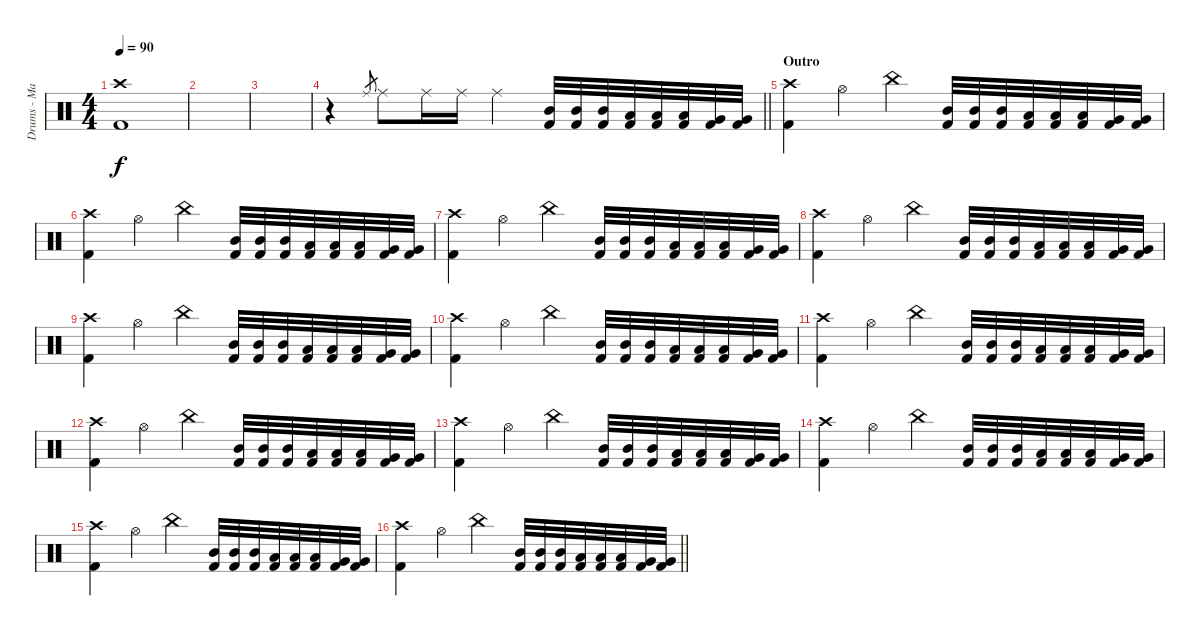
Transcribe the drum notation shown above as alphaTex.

\track ("Drums - Mario Duplantier" "Drums - Ma") {instrument percussion}
\staff {score}
\articulation defaults
\ts (4 4)
\tempo 90
\clef neutral
\ks c
("Crash high (hit)" "Kick (hit) 2").1{dy f} |
|
|
\barLineRight lightlight
r.4 "Ride (middle)".8{gr} "Ride (middle)".8 "Ride (middle)".16 "Ride (middle)".16 "Ride (middle)".4 ("Mid Tom (hit)" "Kick (hit) 2").32 ("Mid Tom (hit)" "Kick (hit) 2").32 ("Mid Tom (hit)" "Kick (hit) 2").32 ("Low Tom (hit)" "Kick (hit) 2").32 ("Low Tom (hit)" "Kick (hit) 2").32 ("Low Tom (hit)" "Kick (hit) 2").32 ("Very Low Tom (hit)" "Kick (hit) 2").32 ("Very Low Tom (hit)" "Kick (hit) 2").32 |
\section ("" "Outro")
("Crash high (hit)" "Kick (hit) 2").4 "Hi-Hat (open)".4 "China (hit)".4 ("Mid Tom (hit)" "Kick (hit) 2").32 ("Mid Tom (hit)" "Kick (hit) 2").32 ("Mid Tom (hit)" "Kick (hit) 2").32 ("Low Tom (hit)" "Kick (hit) 2").32 ("Low Tom (hit)" "Kick (hit) 2").32 ("Low Tom (hit)" "Kick (hit) 2").32 ("Very Low Tom (hit)" "Kick (hit) 2").32 ("Very Low Tom (hit)" "Kick (hit) 2").32 |
("Crash high (hit)" "Kick (hit) 2").4 "Hi-Hat (open)".4 "China (hit)".4 ("Mid Tom (hit)" "Kick (hit) 2").32 ("Mid Tom (hit)" "Kick (hit) 2").32 ("Mid Tom (hit)" "Kick (hit) 2").32 ("Low Tom (hit)" "Kick (hit) 2").32 ("Low Tom (hit)" "Kick (hit) 2").32 ("Low Tom (hit)" "Kick (hit) 2").32 ("Very Low Tom (hit)" "Kick (hit) 2").32 ("Very Low Tom (hit)" "Kick (hit) 2").32 |
("Crash high (hit)" "Kick (hit) 2").4 "Hi-Hat (open)".4 "China (hit)".4 ("Mid Tom (hit)" "Kick (hit) 2").32 ("Mid Tom (hit)" "Kick (hit) 2").32 ("Mid Tom (hit)" "Kick (hit) 2").32 ("Low Tom (hit)" "Kick (hit) 2").32 ("Low Tom (hit)" "Kick (hit) 2").32 ("Low Tom (hit)" "Kick (hit) 2").32 ("Very Low Tom (hit)" "Kick (hit) 2").32 ("Very Low Tom (hit)" "Kick (hit) 2").32 |
("Crash high (hit)" "Kick (hit) 2").4 "Hi-Hat (open)".4 "China (hit)".4 ("Mid Tom (hit)" "Kick (hit) 2").32 ("Mid Tom (hit)" "Kick (hit) 2").32 ("Mid Tom (hit)" "Kick (hit) 2").32 ("Low Tom (hit)" "Kick (hit) 2").32 ("Low Tom (hit)" "Kick (hit) 2").32 ("Low Tom (hit)" "Kick (hit) 2").32 ("Very Low Tom (hit)" "Kick (hit) 2").32 ("Very Low Tom (hit)" "Kick (hit) 2").32 |
("Crash high (hit)" "Kick (hit) 2").4 "Hi-Hat (open)".4 "China (hit)".4 ("Mid Tom (hit)" "Kick (hit) 2").32 ("Mid Tom (hit)" "Kick (hit) 2").32 ("Mid Tom (hit)" "Kick (hit) 2").32 ("Low Tom (hit)" "Kick (hit) 2").32 ("Low Tom (hit)" "Kick (hit) 2").32 ("Low Tom (hit)" "Kick (hit) 2").32 ("Very Low Tom (hit)" "Kick (hit) 2").32 ("Very Low Tom (hit)" "Kick (hit) 2").32 |
("Crash high (hit)" "Kick (hit) 2").4 "Hi-Hat (open)".4 "China (hit)".4 ("Mid Tom (hit)" "Kick (hit) 2").32 ("Mid Tom (hit)" "Kick (hit) 2").32 ("Mid Tom (hit)" "Kick (hit) 2").32 ("Low Tom (hit)" "Kick (hit) 2").32 ("Low Tom (hit)" "Kick (hit) 2").32 ("Low Tom (hit)" "Kick (hit) 2").32 ("Very Low Tom (hit)" "Kick (hit) 2").32 ("Very Low Tom (hit)" "Kick (hit) 2").32 |
("Crash high (hit)" "Kick (hit) 2").4 "Hi-Hat (open)".4 "China (hit)".4 ("Mid Tom (hit)" "Kick (hit) 2").32 ("Mid Tom (hit)" "Kick (hit) 2").32 ("Mid Tom (hit)" "Kick (hit) 2").32 ("Low Tom (hit)" "Kick (hit) 2").32 ("Low Tom (hit)" "Kick (hit) 2").32 ("Low Tom (hit)" "Kick (hit) 2").32 ("Very Low Tom (hit)" "Kick (hit) 2").32 ("Very Low Tom (hit)" "Kick (hit) 2").32 |
("Crash high (hit)" "Kick (hit) 2").4 "Hi-Hat (open)".4 "China (hit)".4 ("Mid Tom (hit)" "Kick (hit) 2").32 ("Mid Tom (hit)" "Kick (hit) 2").32 ("Mid Tom (hit)" "Kick (hit) 2").32 ("Low Tom (hit)" "Kick (hit) 2").32 ("Low Tom (hit)" "Kick (hit) 2").32 ("Low Tom (hit)" "Kick (hit) 2").32 ("Very Low Tom (hit)" "Kick (hit) 2").32 ("Very Low Tom (hit)" "Kick (hit) 2").32 |
("Crash high (hit)" "Kick (hit) 2").4 "Hi-Hat (open)".4 "China (hit)".4 ("Mid Tom (hit)" "Kick (hit) 2").32 ("Mid Tom (hit)" "Kick (hit) 2").32 ("Mid Tom (hit)" "Kick (hit) 2").32 ("Low Tom (hit)" "Kick (hit) 2").32 ("Low Tom (hit)" "Kick (hit) 2").32 ("Low Tom (hit)" "Kick (hit) 2").32 ("Very Low Tom (hit)" "Kick (hit) 2").32 ("Very Low Tom (hit)" "Kick (hit) 2").32 |
("Crash high (hit)" "Kick (hit) 2").4 "Hi-Hat (open)".4 "China (hit)".4 ("Mid Tom (hit)" "Kick (hit) 2").32 ("Mid Tom (hit)" "Kick (hit) 2").32 ("Mid Tom (hit)" "Kick (hit) 2").32 ("Low Tom (hit)" "Kick (hit) 2").32 ("Low Tom (hit)" "Kick (hit) 2").32 ("Low Tom (hit)" "Kick (hit) 2").32 ("Very Low Tom (hit)" "Kick (hit) 2").32 ("Very Low Tom (hit)" "Kick (hit) 2").32 |
("Crash high (hit)" "Kick (hit) 2").4 "Hi-Hat (open)".4 "China (hit)".4 ("Mid Tom (hit)" "Kick (hit) 2").32 ("Mid Tom (hit)" "Kick (hit) 2").32 ("Mid Tom (hit)" "Kick (hit) 2").32 ("Low Tom (hit)" "Kick (hit) 2").32 ("Low Tom (hit)" "Kick (hit) 2").32 ("Low Tom (hit)" "Kick (hit) 2").32 ("Very Low Tom (hit)" "Kick (hit) 2").32 ("Very Low Tom (hit)" "Kick (hit) 2").32 |
\barLineRight lightlight
("Crash high (hit)" "Kick (hit) 2").4 "Hi-Hat (open)".4 "China (hit)".4 ("Mid Tom (hit)" "Kick (hit) 2").32 ("Mid Tom (hit)" "Kick (hit) 2").32 ("Mid Tom (hit)" "Kick (hit) 2").32 ("Low Tom (hit)" "Kick (hit) 2").32 ("Low Tom (hit)" "Kick (hit) 2").32 ("Low Tom (hit)" "Kick (hit) 2").32 ("Very Low Tom (hit)" "Kick (hit) 2").32 ("Very Low Tom (hit)" "Kick (hit) 2").32
